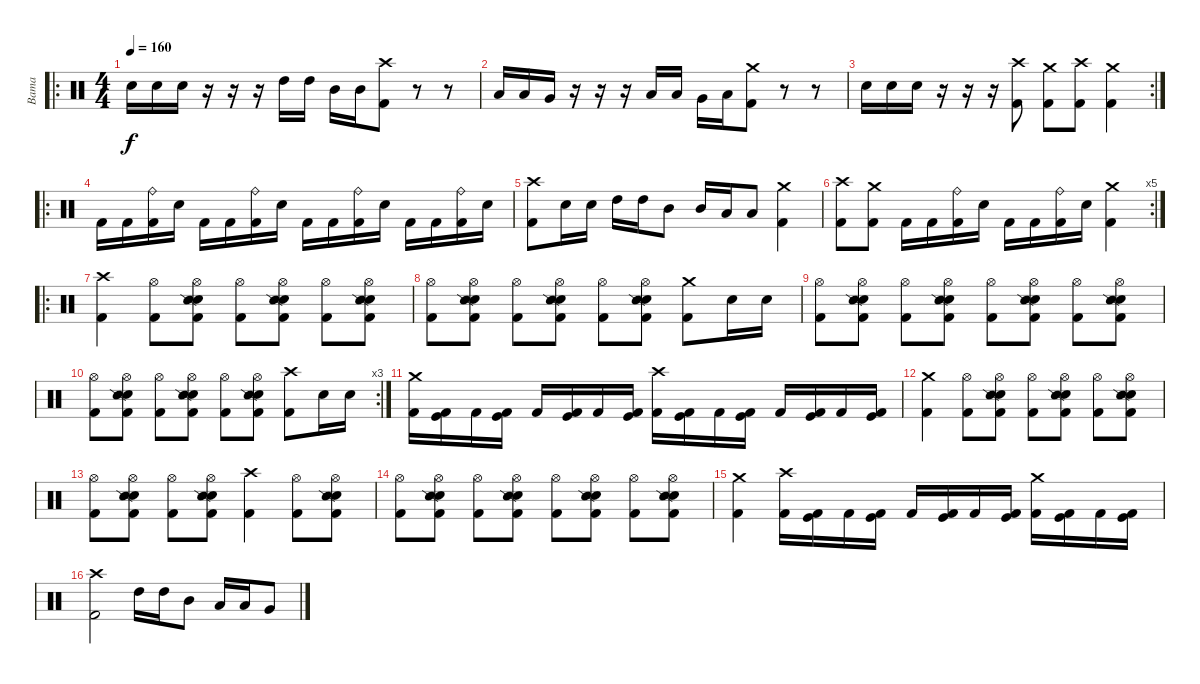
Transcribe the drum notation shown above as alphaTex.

\track ("Bama" "Bama") {instrument percussion}
\staff {score}
\articulation defaults
\ro
\ts (4 4)
\tempo 160
\clef neutral
\ks c "Electric Snare (hit)".16{dy f} "Electric Snare (hit)".16 "Electric Snare (hit)".16
r.16 r.16 r.16 "High Tom (hit)".16 "High Tom (hit)".16 "Mid Tom (hit)".16 "Mid Tom (hit)".16 ("Crash high (hit)" "Kick (hit) 2").8 r.8 r.8 |
"Low Tom (hit)".16 "Low Tom (hit)".16 "Very Low Tom (hit)".16 r.16 r.16 r.16 "Low Tom (hit)".16 "Low Tom (hit)".16 "Very Low Tom (hit)".16 "Low Floor Tom (hit)".16 ("Crash medium (hit)" "Kick (hit) 2").8 r.8 r.8 |
\rc 2 "Electric Snare (hit)".16 "Electric Snare (hit)".16 "Electric Snare (hit)".16
r.16 r.16 r.16 ("Crash high (hit)" "Kick (hit) 2").8 ("Crash medium (hit)" "Kick (hit) 2").8 ("Crash high (hit)" "Kick (hit) 2").8 ("Crash medium (hit)" "Kick (hit) 2").4 |
\ro "Kick (hit) 2".16 "Kick (hit) 2".16
("Ride (bell)" "Kick (hit) 2").16 "Electric Snare (hit)".16 "Kick (hit) 2".16 "Kick (hit) 2".16 ("Ride (bell)" "Kick (hit) 2").16 "Electric Snare (hit)".16 "Kick (hit) 2".16 "Kick (hit) 2".16 ("Ride (bell)" "Kick (hit) 2").16 "Electric Snare (hit)".16 "Kick (hit) 2".16 "Kick (hit) 2".16 ("Ride (bell)" "Kick (hit) 2").16 "Electric Snare (hit)".16 |
("Crash high (hit)" "Kick (hit) 2").8 "Electric Snare (hit)".16 "Electric Snare (hit)".16 "High Tom (hit)".16 "High Tom (hit)".16 "Mid Tom (hit)".8 "Mid Tom (hit)".16 "Low Tom (hit)".16 "Low Tom (hit)".8 ("Crash medium (hit)" "Kick (hit) 2").4 |
\rc 5
("Crash high (hit)" "Kick (hit) 2").8 ("Crash medium (hit)" "Kick (hit) 2").8 "Kick (hit) 2".16 "Kick (hit) 2".16 ("Ride (bell)" "Kick (hit) 2").16 "Electric Snare (hit)".16 "Kick (hit) 2".16 "Kick (hit) 2".16 ("Ride (bell)" "Kick (hit) 2").16 "Electric Snare (hit)".16 ("Crash medium (hit)" "Kick (hit) 2").4 |
\ro
("Crash high (hit)" "Kick (hit) 2").4 ("Hi-Hat (open)" "Kick (hit) 2").8 ("Hi-Hat (open)" "Electric Snare (hit)" "Snare (side stick) 2" "Kick (hit) 2").8 ("Hi-Hat (open)" "Kick (hit) 2").8 ("Hi-Hat (open)" "Electric Snare (hit)" "Snare (side stick) 2" "Kick (hit) 2").8 ("Hi-Hat (open)" "Kick (hit) 2").8 ("Hi-Hat (open)" "Electric Snare (hit)" "Snare (side stick) 2" "Kick (hit) 2").8 |
("Hi-Hat (open)" "Kick (hit) 2").8 ("Hi-Hat (open)" "Electric Snare (hit)" "Snare (side stick) 2" "Kick (hit) 2").8 ("Hi-Hat (open)" "Kick (hit) 2").8 ("Hi-Hat (open)" "Electric Snare (hit)" "Snare (side stick) 2" "Kick (hit) 2").8 ("Hi-Hat (open)" "Kick (hit) 2").8 ("Hi-Hat (open)" "Electric Snare (hit)" "Snare (side stick) 2" "Kick (hit) 2").8 ("Crash medium (hit)" "Kick (hit) 2").8 "Electric Snare (hit)".16 "Electric Snare (hit)".16 |
("Hi-Hat (open)" "Kick (hit) 2").8 ("Hi-Hat (open)" "Electric Snare (hit)" "Snare (side stick) 2" "Kick (hit) 2").8 ("Hi-Hat (open)" "Kick (hit) 2").8 ("Hi-Hat (open)" "Electric Snare (hit)" "Snare (side stick) 2" "Kick (hit) 2").8 ("Hi-Hat (open)" "Kick (hit) 2").8 ("Hi-Hat (open)" "Electric Snare (hit)" "Snare (side stick) 2" "Kick (hit) 2").8 ("Hi-Hat (open)" "Kick (hit) 2").8 ("Hi-Hat (open)" "Electric Snare (hit)" "Snare (side stick) 2" "Kick (hit) 2").8 |
\rc 3
("Hi-Hat (open)" "Kick (hit) 2").8 ("Hi-Hat (open)" "Electric Snare (hit)" "Snare (side stick) 2" "Kick (hit) 2").8 ("Hi-Hat (open)" "Kick (hit) 2").8 ("Hi-Hat (open)" "Electric Snare (hit)" "Snare (side stick) 2" "Kick (hit) 2").8 ("Hi-Hat (open)" "Kick (hit) 2").8 ("Hi-Hat (open)" "Electric Snare (hit)" "Snare (side stick) 2" "Kick (hit) 2").8 ("Crash high (hit)" "Kick (hit) 2").8 "Electric Snare (hit)".16 "Electric Snare (hit)".16 |
("Crash medium (hit)" "Kick (hit) 2").16 ("Kick (hit)" "Kick (hit) 2").16 "Kick (hit) 2".16 ("Kick (hit)" "Kick (hit) 2").16 "Kick (hit) 2".16 ("Kick (hit)" "Kick (hit) 2").16 "Kick (hit) 2".16 ("Kick (hit)" "Kick (hit) 2").16 ("Crash high (hit)" "Kick (hit) 2").16 ("Kick (hit)" "Kick (hit) 2").16 "Kick (hit) 2".16 ("Kick (hit)" "Kick (hit) 2").16 "Kick (hit) 2".16 ("Kick (hit)" "Kick (hit) 2").16 "Kick (hit) 2".16 ("Kick (hit)" "Kick (hit) 2").16 |
("Crash medium (hit)" "Kick (hit) 2").4 ("Hi-Hat (open)" "Kick (hit) 2").8 ("Hi-Hat (open)" "Electric Snare (hit)" "Snare (side stick) 2" "Kick (hit) 2").8 ("Hi-Hat (open)" "Kick (hit) 2").8 ("Hi-Hat (open)" "Electric Snare (hit)" "Snare (side stick) 2" "Kick (hit) 2").8 ("Hi-Hat (open)" "Kick (hit) 2").8 ("Hi-Hat (open)" "Electric Snare (hit)" "Snare (side stick) 2" "Kick (hit) 2").8 |
("Hi-Hat (open)" "Kick (hit) 2").8 ("Hi-Hat (open)" "Electric Snare (hit)" "Snare (side stick) 2" "Kick (hit) 2").8 ("Hi-Hat (open)" "Kick (hit) 2").8 ("Hi-Hat (open)" "Electric Snare (hit)" "Snare (side stick) 2" "Kick (hit) 2").8 ("Crash high (hit)" "Kick (hit) 2").4 ("Hi-Hat (open)" "Kick (hit) 2").8 ("Hi-Hat (open)" "Electric Snare (hit)" "Snare (side stick) 2" "Kick (hit) 2").8 |
("Hi-Hat (open)" "Kick (hit) 2").8 ("Hi-Hat (open)" "Electric Snare (hit)" "Snare (side stick) 2" "Kick (hit) 2").8 ("Hi-Hat (open)" "Kick (hit) 2").8 ("Hi-Hat (open)" "Electric Snare (hit)" "Snare (side stick) 2" "Kick (hit) 2").8 ("Hi-Hat (open)" "Kick (hit) 2").8 ("Hi-Hat (open)" "Electric Snare (hit)" "Snare (side stick) 2" "Kick (hit) 2").8 ("Hi-Hat (open)" "Kick (hit) 2").8 ("Hi-Hat (open)" "Electric Snare (hit)" "Snare (side stick) 2" "Kick (hit) 2").8 |
("Crash medium (hit)" "Kick (hit) 2").4 ("Crash high (hit)" "Kick (hit) 2").16 ("Kick (hit)" "Kick (hit) 2").16 "Kick (hit) 2".16 ("Kick (hit)" "Kick (hit) 2").16 "Kick (hit) 2".16 ("Kick (hit)" "Kick (hit) 2").16 "Kick (hit) 2".16 ("Kick (hit)" "Kick (hit) 2").16 ("Crash medium (hit)" "Kick (hit) 2").16 ("Kick (hit)" "Kick (hit) 2").16 "Kick (hit) 2".16 ("Kick (hit)" "Kick (hit) 2").16 |
("Crash high (hit)" "Kick (hit) 2").2 "High Tom (hit)".16 "High Tom (hit)".16 "Mid Tom (hit)".8 "Low Tom (hit)".16 "Low Tom (hit)".16 "Very Low Tom (hit)".8
